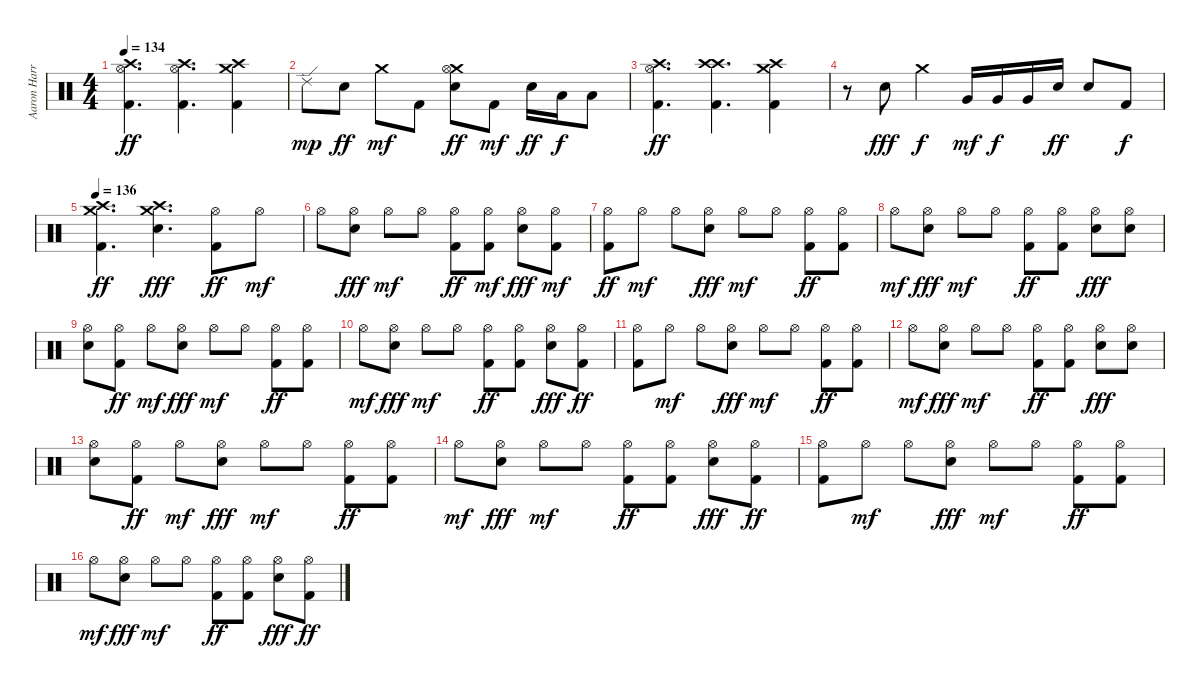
\track ("Aaron Harris" "Aaron Harr") {instrument percussion}
\staff {score}
\articulation defaults
\ts (4 4)
\tempo 134
\clef neutral
\ks c
("Crash high (hit)" "Hi-Hat (open)" "Kick (hit) 2").4{d dy ff} ("Crash high (hit)" "Hi-Hat (open)" "Kick (hit) 2").4{d} ("Crash medium (hit)" "Crash high (hit)" "Kick (hit) 2").4 |
"Ride (edge) 2".8{dy mp} "Electric Snare (hit)".8{dy ff} "Crash medium (hit)".8{dy mf} "Kick (hit) 2".8 ("Crash medium (hit)" "Hi-Hat (open)" "Electric Snare (hit)").8{dy ff} "Kick (hit) 2".8{dy mf} "Electric Snare (hit)".16{dy ff} "Low Tom (hit)".16{dy f} "Low Floor Tom (hit)".8 |
("Crash high (hit)" "Hi-Hat (open)" "Kick (hit) 2").4{d dy ff} ("Crash high (hit)" "Crash high (hit)" "Kick (hit) 2").4{d} ("Crash medium (hit)" "Crash high (hit)" "Kick (hit) 2").4 |
r.8 "Electric Snare (hit)".8{dy fff} "Crash medium (hit)".4{dy f} "Very Low Tom (hit)".16{dy mf} "Very Low Tom (hit)".16{dy f} "Very Low Tom (hit)".16 "Electric Snare (hit)".16{dy ff} "Electric Snare (hit)".8 "Kick (hit) 2".8{dy f} |
\tempo 136
("Crash medium (hit)" "Crash high (hit)" "Kick (hit) 2").4{d dy ff} ("Crash medium (hit)" "Crash high (hit)" "Electric Snare (hit)").4{d dy fff} ("Hi-Hat (open)" "Kick (hit) 2").8{dy ff} "Hi-Hat (open)".8{dy mf} |
"Hi-Hat (open)".8 ("Hi-Hat (open)" "Electric Snare (hit)").8{dy fff} "Hi-Hat (open)".8{dy mf} "Hi-Hat (open)".8 ("Hi-Hat (open)" "Kick (hit) 2").8{dy ff} ("Hi-Hat (open)" "Kick (hit) 2").8{dy mf} ("Hi-Hat (open)" "Electric Snare (hit)").8{dy fff} ("Hi-Hat (open)" "Kick (hit) 2").8{dy mf} |
("Hi-Hat (open)" "Kick (hit) 2").8{dy ff} "Hi-Hat (open)".8{dy mf} "Hi-Hat (open)".8 ("Hi-Hat (open)" "Electric Snare (hit)").8{dy fff} "Hi-Hat (open)".8{dy mf} "Hi-Hat (open)".8 ("Hi-Hat (open)" "Kick (hit) 2").8{dy ff} ("Hi-Hat (open)" "Kick (hit) 2").8 |
"Hi-Hat (open)".8{dy mf} ("Hi-Hat (open)" "Electric Snare (hit)").8{dy fff} "Hi-Hat (open)".8{dy mf} "Hi-Hat (open)".8 ("Hi-Hat (open)" "Kick (hit) 2").8{dy ff} ("Hi-Hat (open)" "Kick (hit) 2").8 ("Hi-Hat (open)" "Electric Snare (hit)").8{dy fff} ("Hi-Hat (open)" "Electric Snare (hit)").8 |
("Hi-Hat (open)" "Electric Snare (hit)").8 ("Hi-Hat (open)" "Kick (hit) 2").8{dy ff} "Hi-Hat (open)".8{dy mf} ("Hi-Hat (open)" "Electric Snare (hit)").8{dy fff} "Hi-Hat (open)".8{dy mf} "Hi-Hat (open)".8 ("Hi-Hat (open)" "Kick (hit) 2").8{dy ff} ("Hi-Hat (open)" "Kick (hit) 2").8 |
"Hi-Hat (open)".8{dy mf} ("Hi-Hat (open)" "Electric Snare (hit)").8{dy fff} "Hi-Hat (open)".8{dy mf} "Hi-Hat (open)".8 ("Hi-Hat (open)" "Kick (hit) 2").8{dy ff} ("Hi-Hat (open)" "Kick (hit) 2").8 ("Hi-Hat (open)" "Electric Snare (hit)").8{dy fff} ("Hi-Hat (open)" "Kick (hit) 2").8{dy ff} |
("Hi-Hat (open)" "Kick (hit) 2").8 "Hi-Hat (open)".8{dy mf} "Hi-Hat (open)".8 ("Hi-Hat (open)" "Electric Snare (hit)").8{dy fff} "Hi-Hat (open)".8{dy mf} "Hi-Hat (open)".8 ("Hi-Hat (open)" "Kick (hit) 2").8{dy ff} ("Hi-Hat (open)" "Kick (hit) 2").8 |
"Hi-Hat (open)".8{dy mf} ("Hi-Hat (open)" "Electric Snare (hit)").8{dy fff} "Hi-Hat (open)".8{dy mf} "Hi-Hat (open)".8 ("Hi-Hat (open)" "Kick (hit) 2").8{dy ff} ("Hi-Hat (open)" "Kick (hit) 2").8 ("Hi-Hat (open)" "Electric Snare (hit)").8{dy fff} ("Hi-Hat (open)" "Electric Snare (hit)").8 |
("Hi-Hat (open)" "Electric Snare (hit)").8 ("Hi-Hat (open)" "Kick (hit) 2").8{dy ff} "Hi-Hat (open)".8{dy mf} ("Hi-Hat (open)" "Electric Snare (hit)").8{dy fff} "Hi-Hat (open)".8{dy mf} "Hi-Hat (open)".8 ("Hi-Hat (open)" "Kick (hit) 2").8{dy ff} ("Hi-Hat (open)" "Kick (hit) 2").8 |
"Hi-Hat (open)".8{dy mf} ("Hi-Hat (open)" "Electric Snare (hit)").8{dy fff} "Hi-Hat (open)".8{dy mf} "Hi-Hat (open)".8 ("Hi-Hat (open)" "Kick (hit) 2").8{dy ff} ("Hi-Hat (open)" "Kick (hit) 2").8 ("Hi-Hat (open)" "Electric Snare (hit)").8{dy fff} ("Hi-Hat (open)" "Kick (hit) 2").8{dy ff} |
("Hi-Hat (open)" "Kick (hit) 2").8 "Hi-Hat (open)".8{dy mf} "Hi-Hat (open)".8 ("Hi-Hat (open)" "Electric Snare (hit)").8{dy fff} "Hi-Hat (open)".8{dy mf} "Hi-Hat (open)".8 ("Hi-Hat (open)" "Kick (hit) 2").8{dy ff} ("Hi-Hat (open)" "Kick (hit) 2").8 |
"Hi-Hat (open)".8{dy mf} ("Hi-Hat (open)" "Electric Snare (hit)").8{dy fff} "Hi-Hat (open)".8{dy mf} "Hi-Hat (open)".8 ("Hi-Hat (open)" "Kick (hit) 2").8{dy ff} ("Hi-Hat (open)" "Kick (hit) 2").8 ("Hi-Hat (open)" "Electric Snare (hit)").8{dy fff} ("Hi-Hat (open)" "Kick (hit) 2").8{dy ff}
